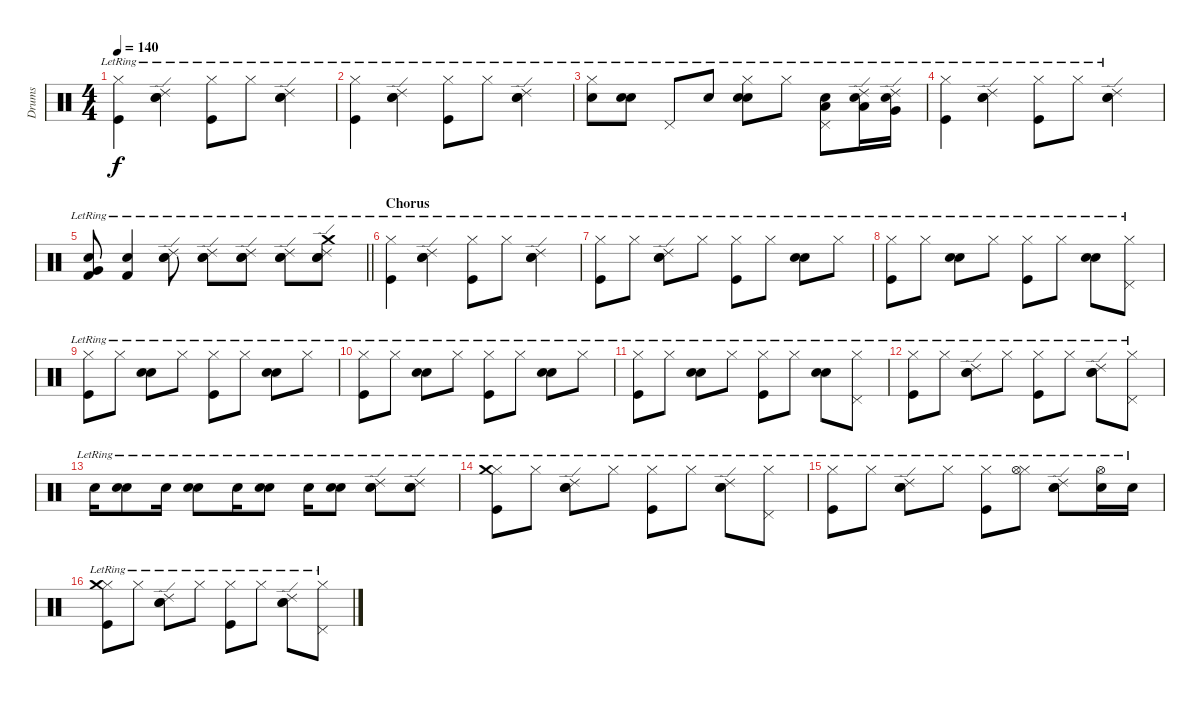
\track ("Drums" "Drums") {instrument percussion}
\staff {score}
\articulation defaults
\ts (4 4)
\tempo 140
\clef neutral
\ks c
("Hi-Hat (closed)"{lr} "Kick (hit)"{lr}).4{dy f} ("Electric Snare (hit)"{lr} "Ride (edge) 2"{lr} "Snare (hit) 2"{lr}).4 ("Hi-Hat (closed)"{lr} "Kick (hit)"{lr}).8 "Hi-Hat (closed)"{lr}.8 ("Electric Snare (hit)"{lr} "Ride (edge) 2"{lr} "Snare (hit) 2"{lr}).4 |
("Hi-Hat (closed)"{lr} "Kick (hit)"{lr}).4 ("Electric Snare (hit)"{lr} "Ride (edge) 2"{lr} "Snare (hit) 2"{lr}).4 ("Hi-Hat (closed)"{lr} "Kick (hit)"{lr}).8 "Hi-Hat (closed)"{lr}.8 ("Electric Snare (hit)"{lr} "Ride (edge) 2"{lr} "Snare (hit) 2"{lr}).4 |
("Hi-Hat (closed)"{lr} "Snare (hit) 2"{lr}).8 ("Snare (hit) 2"{lr} "Electric Snare (hit)"{lr}).8 "Pedal Hi-Hat (hit)"{lr}.8 "Snare (hit) 2"{lr}.8 ("Hi-Hat (closed)"{lr} "Snare (hit) 2"{lr} "Electric Snare (hit)"{lr}).8 "Hi-Hat (closed)"{lr}.8 ("Pedal Hi-Hat (hit)"{lr} "Snare (hit) 2"{lr} "Low Tom (hit)"{lr}).8 ("Ride (edge) 2"{lr} "Snare (hit) 2"{lr} "Low Tom (hit)"{lr}).16 ("Ride (edge) 2"{lr} "Snare (hit) 2"{lr} "Very Low Tom (hit)"{lr}).16 |
("Hi-Hat (closed)"{lr} "Kick (hit)"{lr}).4 ("Electric Snare (hit)"{lr} "Ride (edge) 2"{lr} "Snare (hit) 2"{lr}).4 ("Hi-Hat (closed)"{lr} "Kick (hit)"{lr}).8 "Hi-Hat (closed)"{lr}.8 ("Electric Snare (hit)"{lr} "Ride (edge) 2"{lr} "Snare (hit) 2"{lr}).4 |
\barLineRight lightlight
("Kick (hit) 2"{lr} "Very Low Tom (hit)"{lr} "Electric Snare (hit)"{lr}).8 ("Kick (hit) 2"{lr} "Electric Snare (hit)"{lr}).4 ("Snare (hit) 2"{lr} "Electric Snare (hit)"{lr} "Ride (edge) 2"{lr}).8 ("Snare (hit) 2"{lr} "Electric Snare (hit)"{lr} "Ride (edge) 2"{lr}).8 ("Snare (hit) 2"{lr} "Electric Snare (hit)"{lr} "Ride (edge) 2"{lr}).8 ("Snare (hit) 2"{lr} "Electric Snare (hit)"{lr} "Ride (edge) 2"{lr}).8 ("Snare (hit) 2"{lr} "Electric Snare (hit)"{lr} "Ride (edge) 2"{lr} "Crash medium (hit)"{lr}).8 |
\section ("" "Chorus")
("Hi-Hat (closed)"{lr} "Kick (hit)"{lr}).4 ("Electric Snare (hit)"{lr} "Ride (edge) 2"{lr} "Snare (hit) 2"{lr}).4 ("Hi-Hat (closed)"{lr} "Kick (hit)"{lr}).8 "Hi-Hat (closed)"{lr}.8 ("Electric Snare (hit)"{lr} "Ride (edge) 2"{lr} "Snare (hit) 2"{lr}).4 |
("Hi-Hat (closed)"{lr} "Kick (hit)"{lr}).8 "Hi-Hat (closed)"{lr}.8 ("Electric Snare (hit)"{lr} "Ride (edge) 2"{lr} "Snare (hit) 2"{lr}).8 "Hi-Hat (closed)"{lr}.8 ("Hi-Hat (closed)"{lr} "Kick (hit)"{lr}).8 "Hi-Hat (closed)"{lr}.8 ("Electric Snare (hit)"{lr} "Snare (hit) 2"{lr}).8 "Hi-Hat (closed)"{lr}.8 |
("Hi-Hat (closed)"{lr} "Kick (hit)"{lr}).8 "Hi-Hat (closed)"{lr}.8 ("Electric Snare (hit)"{lr} "Snare (hit) 2"{lr}).8 "Hi-Hat (closed)"{lr}.8 ("Hi-Hat (closed)"{lr} "Kick (hit)"{lr}).8 "Hi-Hat (closed)"{lr}.8 ("Electric Snare (hit)"{lr} "Snare (hit) 2"{lr}).8 ("Hi-Hat (closed)"{lr} "Pedal Hi-Hat (hit)"{lr}).8 |
("Hi-Hat (closed)"{lr} "Kick (hit)"{lr}).8 "Hi-Hat (closed)"{lr}.8 ("Electric Snare (hit)"{lr} "Snare (hit) 2"{lr}).8 "Hi-Hat (closed)"{lr}.8 ("Hi-Hat (closed)"{lr} "Kick (hit)"{lr}).8 "Hi-Hat (closed)"{lr}.8 ("Electric Snare (hit)"{lr} "Snare (hit) 2"{lr}).8 "Hi-Hat (closed)"{lr}.8 |
("Hi-Hat (closed)"{lr} "Kick (hit)"{lr}).8 "Hi-Hat (closed)"{lr}.8 ("Electric Snare (hit)"{lr} "Snare (hit) 2"{lr}).8 "Hi-Hat (closed)"{lr}.8 ("Hi-Hat (closed)"{lr} "Kick (hit)"{lr}).8 "Hi-Hat (closed)"{lr}.8 ("Electric Snare (hit)"{lr} "Snare (hit) 2"{lr}).8 "Hi-Hat (closed)"{lr}.8 |
("Hi-Hat (closed)"{lr} "Kick (hit)"{lr}).8 "Hi-Hat (closed)"{lr}.8 ("Electric Snare (hit)"{lr} "Snare (hit) 2"{lr}).8 "Hi-Hat (closed)"{lr}.8 ("Hi-Hat (closed)"{lr} "Kick (hit)"{lr}).8 "Hi-Hat (closed)"{lr}.8 ("Electric Snare (hit)"{lr} "Snare (hit) 2"{lr}).8 ("Hi-Hat (closed)"{lr} "Pedal Hi-Hat (hit)"{lr}).8 |
("Hi-Hat (closed)"{lr} "Kick (hit)"{lr}).8 "Hi-Hat (closed)"{lr}.8 ("Electric Snare (hit)"{lr} "Ride (edge) 2"{lr} "Snare (hit) 2"{lr}).8 "Hi-Hat (closed)"{lr}.8 ("Hi-Hat (closed)"{lr} "Kick (hit)"{lr}).8 "Hi-Hat (closed)"{lr}.8 ("Electric Snare (hit)"{lr} "Ride (edge) 2"{lr} "Snare (hit) 2"{lr}).8 ("Hi-Hat (closed)"{lr} "Pedal Hi-Hat (hit)"{lr}).8 |
"Snare (hit) 2"{lr}.16 ("Snare (hit) 2"{lr} "Electric Snare (hit)"{lr}).8 "Snare (hit) 2"{lr}.16 ("Snare (hit) 2"{lr} "Electric Snare (hit)"{lr}).8 "Snare (hit) 2"{lr}.16 ("Snare (hit) 2"{lr} "Electric Snare (hit)"{lr}).8 "Snare (hit) 2"{lr}.16 ("Snare (hit) 2"{lr} "Electric Snare (hit)"{lr}).8 ("Snare (hit) 2"{lr} "Electric Snare (hit)"{lr} "Ride (edge) 2"{lr}).8 ("Snare (hit) 2"{lr} "Electric Snare (hit)"{lr} "Ride (edge) 2"{lr}).8 |
("Hi-Hat (closed)"{lr} "Crash medium (hit)"{lr} "Kick (hit)"{lr}).8 "Hi-Hat (closed)"{lr}.8 ("Electric Snare (hit)"{lr} "Ride (edge) 2"{lr} "Snare (hit) 2"{lr}).8 "Hi-Hat (closed)"{lr}.8 ("Hi-Hat (closed)"{lr} "Kick (hit)"{lr}).8 "Hi-Hat (closed)"{lr}.8 ("Electric Snare (hit)"{lr} "Ride (edge) 2"{lr} "Snare (hit) 2"{lr}).8 ("Hi-Hat (closed)"{lr} "Pedal Hi-Hat (hit)"{lr}).8 |
("Hi-Hat (closed)"{lr} "Kick (hit)"{lr}).8 "Hi-Hat (closed)"{lr}.8 ("Electric Snare (hit)"{lr} "Ride (edge) 2"{lr} "Snare (hit) 2"{lr}).8 "Hi-Hat (closed)"{lr}.8 ("Hi-Hat (closed)"{lr} "Kick (hit)"{lr}).8 ("Hi-Hat (closed)"{lr} "Hi-Hat (open)"{lr}).8 ("Electric Snare (hit)"{lr} "Ride (edge) 2"{lr} "Snare (hit) 2"{lr}).8 ("Hi-Hat (open)"{lr} "Snare (hit) 2"{lr}).16 "Snare (hit) 2"{lr}.16 |
("Hi-Hat (closed)"{lr} "Crash medium (hit)"{lr} "Kick (hit)"{lr}).8 "Hi-Hat (closed)"{lr}.8 ("Electric Snare (hit)"{lr} "Ride (edge) 2"{lr} "Snare (hit) 2"{lr}).8 "Hi-Hat (closed)"{lr}.8 ("Hi-Hat (closed)"{lr} "Kick (hit)"{lr}).8 "Hi-Hat (closed)"{lr}.8 ("Electric Snare (hit)"{lr} "Ride (edge) 2"{lr} "Snare (hit) 2"{lr}).8 ("Hi-Hat (closed)"{lr} "Pedal Hi-Hat (hit)"{lr}).8
